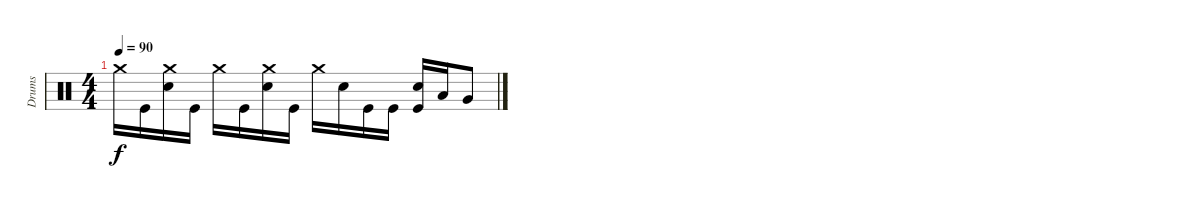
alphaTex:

\track ("Drums" "Drums") {instrument percussion}
\staff {score}
\articulation defaults
\ts (4 4)
\tempo 90
\clef neutral
\ks c "Crash medium (hit)".16{dy f} "Kick (hit)".16
("Crash medium (hit)" "Snare (hit) 2").16 "Kick (hit)".16 "Crash medium (hit)".16 "Kick (hit)".16 ("Crash medium (hit)" "Snare (hit) 2").16 "Kick (hit)".16 "Crash medium (hit)".16 "Snare (hit) 2".16 "Kick (hit)".16 "Kick (hit)".16 ("Snare (hit) 2" "Kick (hit)").16 "Low Tom (hit)".16 "Very Low Tom (hit)".8
